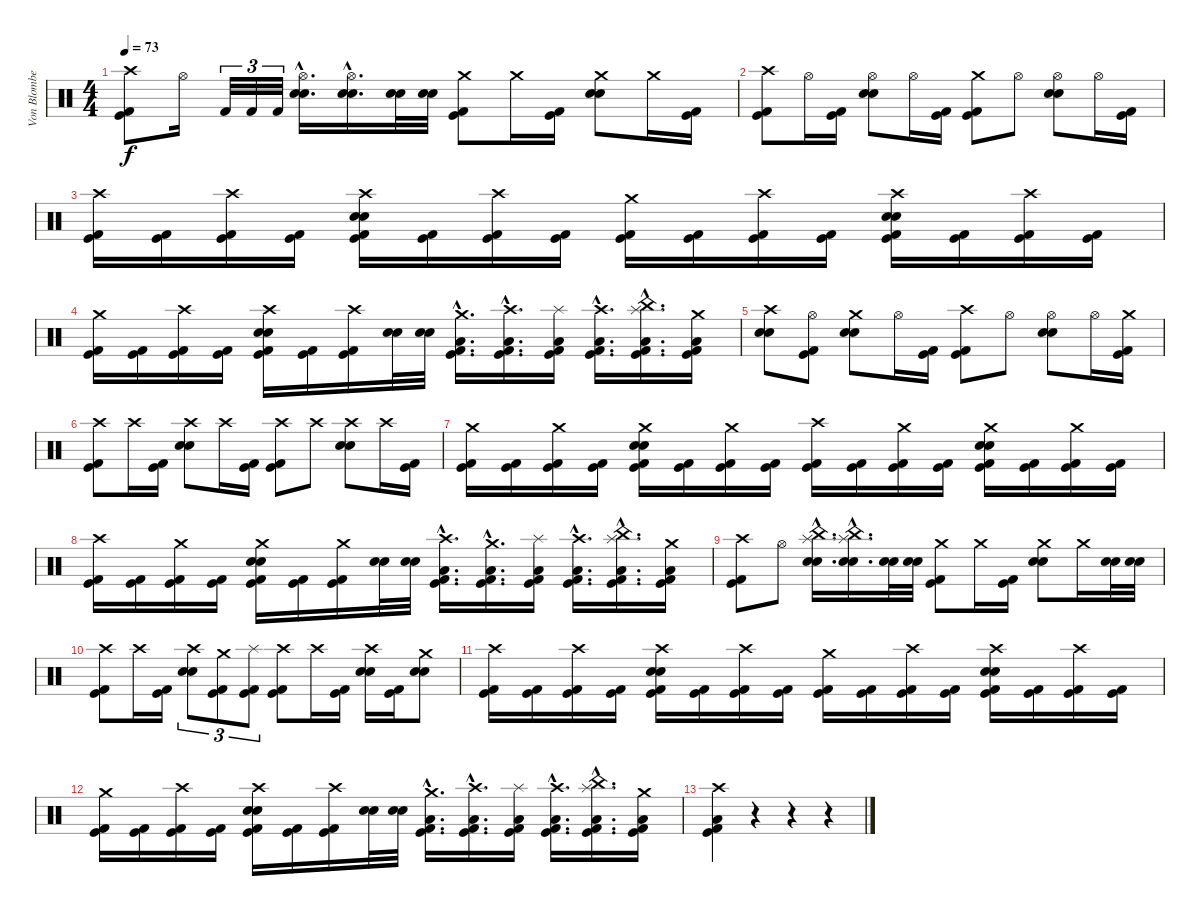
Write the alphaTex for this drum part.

\track ("Von Blomberg" "Von Blombe") {instrument percussion}
\staff {score}
\articulation defaults
\ts (4 4)
\tempo 73
\clef neutral
\ks c
("Crash high (hit)" "Kick (hit)" "Kick (hit) 2").8{dy f} "Hi-Hat (open)".16 "Kick (hit) 2".32{tu (3 2)} "Kick (hit) 2".32{tu (3 2)} "Kick (hit) 2".32{tu (3 2)} ("Hi-Hat (open)"{hac} "Snare (hit) 2"{hac} "Electric Snare (hit)"{hac}).16{d} ("Hi-Hat (open)"{hac} "Electric Snare (hit)"{hac} "Snare (hit) 2"{hac}).16{d} ("Electric Snare (hit)" "Snare (hit) 2").32 ("Electric Snare (hit)" "Snare (hit) 2").32 ("Crash medium (hit)" "Kick (hit)" "Kick (hit) 2").8 "Crash medium (hit)".16 ("Kick (hit)" "Kick (hit) 2").16 ("Crash medium (hit)" "Snare (hit) 2" "Electric Snare (hit)").8 "Crash medium (hit)".16 ("Kick (hit)" "Kick (hit) 2").16 |
("Crash high (hit)" "Kick (hit)" "Kick (hit) 2").8 "Hi-Hat (open)".16 ("Kick (hit)" "Kick (hit) 2").16 ("Hi-Hat (open)" "Snare (hit) 2" "Electric Snare (hit)").8 "Hi-Hat (open)".16 ("Kick (hit)" "Kick (hit) 2").16 ("Crash medium (hit)" "Kick (hit)" "Kick (hit) 2").8 "Hi-Hat (open)".8 ("Hi-Hat (open)" "Snare (hit) 2" "Electric Snare (hit)").8 "Hi-Hat (open)".16 ("Kick (hit)" "Kick (hit) 2").16 |
("Crash high (hit)" "Kick (hit)" "Kick (hit) 2").16 ("Kick (hit)" "Kick (hit) 2").16 ("Crash high (hit)" "Kick (hit)" "Kick (hit) 2").16 ("Kick (hit)" "Kick (hit) 2").16 ("Crash high (hit)" "Electric Snare (hit)" "Snare (hit) 2" "Kick (hit)" "Kick (hit) 2").16 ("Kick (hit)" "Kick (hit) 2").16 ("Crash high (hit)" "Kick (hit)" "Kick (hit) 2").16 ("Kick (hit)" "Kick (hit) 2").16 ("Crash medium (hit)" "Kick (hit)" "Kick (hit) 2").16 ("Kick (hit)" "Kick (hit) 2").16 ("Crash high (hit)" "Kick (hit)" "Kick (hit) 2").16 ("Kick (hit)" "Kick (hit) 2").16 ("Crash high (hit)" "Electric Snare (hit)" "Snare (hit) 2" "Kick (hit)" "Kick (hit) 2").16 ("Kick (hit)" "Kick (hit) 2").16 ("Crash high (hit)" "Kick (hit)" "Kick (hit) 2").16 ("Kick (hit)" "Kick (hit) 2").16 |
("Crash medium (hit)" "Kick (hit)" "Kick (hit) 2").16 ("Kick (hit)" "Kick (hit) 2").16 ("Crash high (hit)" "Kick (hit)" "Kick (hit) 2").16 ("Kick (hit)" "Kick (hit) 2").16 ("Crash high (hit)" "Electric Snare (hit)" "Snare (hit) 2" "Kick (hit)" "Kick (hit) 2").16 ("Kick (hit)" "Kick (hit) 2").16 ("Crash high (hit)" "Kick (hit)" "Kick (hit) 2").16 ("Electric Snare (hit)" "Snare (hit) 2").32 ("Electric Snare (hit)" "Snare (hit) 2").32 ("Crash medium (hit)"{hac} "Low Floor Tom (hit)"{hac} "Kick (hit)"{hac} "Kick (hit) 2"{hac}).16{d} ("Crash high (hit)"{hac} "Low Floor Tom (hit)"{hac} "Kick (hit)"{hac} "Kick (hit) 2"{hac}).16{d} ("Splash (hit)" "Low Floor Tom (hit)" "Kick (hit)" "Kick (hit) 2").16 ("Crash high (hit)"{hac} "Low Floor Tom (hit)"{hac} "Kick (hit)"{hac} "Kick (hit) 2"{hac}).16{d} ("China (hit)"{hac} "Splash (hit)"{hac} "Low Floor Tom (hit)"{hac} "Kick (hit)"{hac} "Kick (hit) 2"{hac}).16{d} ("Crash medium (hit)" "Low Floor Tom (hit)" "Kick (hit)" "Kick (hit) 2").16 |
("Crash high (hit)" "Snare (hit) 2" "Electric Snare (hit)").8 ("Hi-Hat (open)" "Kick (hit)" "Kick (hit) 2").8 ("Crash medium (hit)" "Snare (hit) 2" "Electric Snare (hit)").8 "Hi-Hat (open)".16 ("Kick (hit)" "Kick (hit) 2").16 ("Crash high (hit)" "Kick (hit)" "Kick (hit) 2").8 "Hi-Hat (open)".8 ("Hi-Hat (open)" "Electric Snare (hit)" "Snare (hit) 2").8 "Hi-Hat (open)".16 ("Crash medium (hit)" "Kick (hit)" "Kick (hit) 2").16 |
("Crash high (hit)" "Kick (hit)" "Kick (hit) 2").8 "Crash high (hit)".16 ("Kick (hit)" "Kick (hit) 2").16 ("Crash high (hit)" "Snare (hit) 2" "Electric Snare (hit)").8 "Crash high (hit)".16 ("Kick (hit)" "Kick (hit) 2").16 ("Crash high (hit)" "Kick (hit)" "Kick (hit) 2").8 "Crash high (hit)".8 ("Crash high (hit)" "Snare (hit) 2" "Electric Snare (hit)").8 "Crash high (hit)".16 ("Kick (hit)" "Kick (hit) 2").16 |
("Crash medium (hit)" "Kick (hit)" "Kick (hit) 2").16 ("Kick (hit)" "Kick (hit) 2").16 ("Crash medium (hit)" "Kick (hit)" "Kick (hit) 2").16 ("Kick (hit)" "Kick (hit) 2").16 ("Crash medium (hit)" "Electric Snare (hit)" "Snare (hit) 2" "Kick (hit)" "Kick (hit) 2").16 ("Kick (hit)" "Kick (hit) 2").16 ("Crash medium (hit)" "Kick (hit)" "Kick (hit) 2").16 ("Kick (hit)" "Kick (hit) 2").16 ("Crash high (hit)" "Kick (hit)" "Kick (hit) 2").16 ("Kick (hit)" "Kick (hit) 2").16 ("Crash medium (hit)" "Kick (hit)" "Kick (hit) 2").16 ("Kick (hit)" "Kick (hit) 2").16 ("Crash medium (hit)" "Electric Snare (hit)" "Snare (hit) 2" "Kick (hit)" "Kick (hit) 2").16 ("Kick (hit)" "Kick (hit) 2").16 ("Crash medium (hit)" "Kick (hit)" "Kick (hit) 2").16 ("Kick (hit)" "Kick (hit) 2").16 |
("Crash high (hit)" "Kick (hit)" "Kick (hit) 2").16 ("Kick (hit)" "Kick (hit) 2").16 ("Crash medium (hit)" "Kick (hit)" "Kick (hit) 2").16 ("Kick (hit)" "Kick (hit) 2").16 ("Crash medium (hit)" "Electric Snare (hit)" "Snare (hit) 2" "Kick (hit)" "Kick (hit) 2").16 ("Kick (hit)" "Kick (hit) 2").16 ("Crash medium (hit)" "Kick (hit)" "Kick (hit) 2").16 ("Electric Snare (hit)" "Snare (hit) 2").32 ("Electric Snare (hit)" "Snare (hit) 2").32 ("Crash high (hit)"{hac} "Low Floor Tom (hit)"{hac} "Kick (hit)"{hac} "Kick (hit) 2"{hac}).16{d} ("Crash medium (hit)"{hac} "Low Floor Tom (hit)"{hac} "Kick (hit)"{hac} "Kick (hit) 2"{hac}).16{d} ("Splash (hit)" "Low Floor Tom (hit)" "Kick (hit)" "Kick (hit) 2").16 ("Crash high (hit)"{hac} "Low Floor Tom (hit)"{hac} "Kick (hit)"{hac} "Kick (hit) 2"{hac}).16{d} ("China (hit)"{hac} "Splash (hit)"{hac} "Low Floor Tom (hit)"{hac} "Kick (hit)"{hac} "Kick (hit) 2"{hac}).16{d} ("Crash medium (hit)" "Low Floor Tom (hit)" "Kick (hit)" "Kick (hit) 2").16 |
("Crash high (hit)" "Kick (hit)" "Kick (hit) 2").8 "Hi-Hat (open)".8 ("China (hit)"{hac} "Splash (hit)"{hac} "Snare (hit) 2"{hac} "Electric Snare (hit)"{hac}).16{d} ("China (hit)"{hac} "Splash (hit)"{hac} "Electric Snare (hit)"{hac} "Snare (hit) 2"{hac}).16{d} ("Electric Snare (hit)" "Snare (hit) 2").32 ("Electric Snare (hit)" "Snare (hit) 2").32 ("Crash medium (hit)" "Kick (hit)" "Kick (hit) 2").8 "Crash medium (hit)".16 ("Kick (hit)" "Kick (hit) 2").16 ("Crash medium (hit)" "Snare (hit) 2" "Electric Snare (hit)").8 "Crash medium (hit)".16 ("Snare (hit) 2" "Electric Snare (hit)").32 ("Snare (hit) 2" "Electric Snare (hit)").32 |
("Crash high (hit)" "Kick (hit)" "Kick (hit) 2").8 "Crash high (hit)".16 ("Kick (hit)" "Kick (hit) 2").16 ("Crash high (hit)" "Electric Snare (hit)" "Snare (hit) 2").8{tu (3 2)} ("Crash medium (hit)" "Kick (hit)" "Kick (hit) 2").8{tu (3 2)} ("Splash (hit)" "Kick (hit)" "Kick (hit) 2").8{tu (3 2)} ("Crash high (hit)" "Kick (hit)" "Kick (hit) 2").8 "Crash high (hit)".16 ("Kick (hit)" "Kick (hit) 2").16 ("Crash high (hit)" "Electric Snare (hit)" "Snare (hit) 2").16 ("Kick (hit)" "Kick (hit) 2").16 ("Crash medium (hit)" "Electric Snare (hit)" "Snare (hit) 2").8 |
("Crash high (hit)" "Kick (hit)" "Kick (hit) 2").16 ("Kick (hit)" "Kick (hit) 2").16 ("Crash high (hit)" "Kick (hit)" "Kick (hit) 2").16 ("Kick (hit)" "Kick (hit) 2").16 ("Crash high (hit)" "Electric Snare (hit)" "Snare (hit) 2" "Kick (hit)" "Kick (hit) 2").16 ("Kick (hit)" "Kick (hit) 2").16 ("Crash high (hit)" "Kick (hit)" "Kick (hit) 2").16 ("Kick (hit)" "Kick (hit) 2").16 ("Crash medium (hit)" "Kick (hit)" "Kick (hit) 2").16 ("Kick (hit)" "Kick (hit) 2").16 ("Crash high (hit)" "Kick (hit)" "Kick (hit) 2").16 ("Kick (hit)" "Kick (hit) 2").16 ("Crash high (hit)" "Electric Snare (hit)" "Snare (hit) 2" "Kick (hit)" "Kick (hit) 2").16 ("Kick (hit)" "Kick (hit) 2").16 ("Crash high (hit)" "Kick (hit)" "Kick (hit) 2").16 ("Kick (hit)" "Kick (hit) 2").16 |
("Crash medium (hit)" "Kick (hit)" "Kick (hit) 2").16 ("Kick (hit)" "Kick (hit) 2").16 ("Crash high (hit)" "Kick (hit)" "Kick (hit) 2").16 ("Kick (hit)" "Kick (hit) 2").16 ("Crash high (hit)" "Electric Snare (hit)" "Snare (hit) 2" "Kick (hit)" "Kick (hit) 2").16 ("Kick (hit)" "Kick (hit) 2").16 ("Crash high (hit)" "Kick (hit)" "Kick (hit) 2").16 ("Electric Snare (hit)" "Snare (hit) 2").32 ("Electric Snare (hit)" "Snare (hit) 2").32 ("Crash medium (hit)"{hac} "Low Floor Tom (hit)"{hac} "Kick (hit)"{hac} "Kick (hit) 2"{hac}).16{d} ("Crash high (hit)"{hac} "Low Floor Tom (hit)"{hac} "Kick (hit)"{hac} "Kick (hit) 2"{hac}).16{d} ("Splash (hit)" "Low Floor Tom (hit)" "Kick (hit)" "Kick (hit) 2").16 ("Crash high (hit)"{hac} "Low Floor Tom (hit)"{hac} "Kick (hit)"{hac} "Kick (hit) 2"{hac}).16{d} ("China (hit)"{hac} "Splash (hit)"{hac} "Low Floor Tom (hit)"{hac} "Kick (hit)"{hac} "Kick (hit) 2"{hac}).16{d} ("Crash medium (hit)" "Low Floor Tom (hit)" "Kick (hit)" "Kick (hit) 2").16 |
("Crash high (hit)" "Low Floor Tom (hit)" "Kick (hit)" "Kick (hit) 2").4 r.4 r.4 r.4
